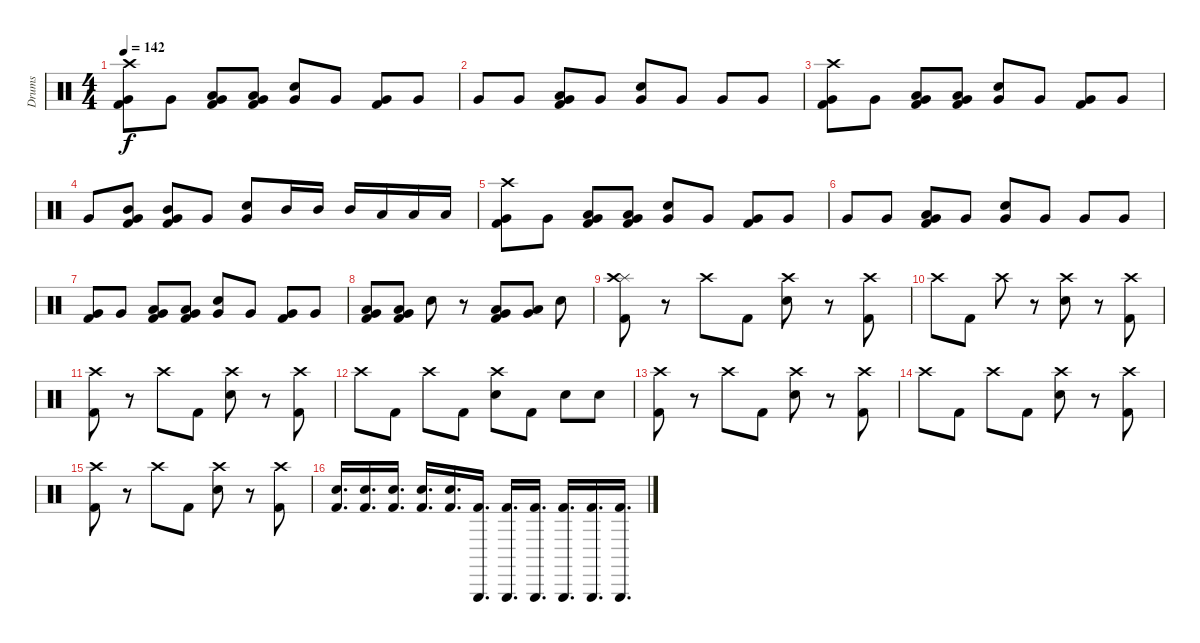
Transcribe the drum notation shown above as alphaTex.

\track ("Drums" "Drums") {instrument percussion}
\staff {score}
\articulation defaults
\ts (4 4)
\tempo 142
\clef neutral
\ks c
("Crash high (hit)" "Very Low Tom (hit)" "Kick (hit) 2").8{dy f} "Very Low Tom (hit)".8 ("Very Low Tom (hit)" "Low Tom (hit)" "Kick (hit) 2").8 ("Very Low Tom (hit)" "Low Tom (hit)" "Kick (hit) 2").8 ("Very Low Tom (hit)" "Snare (hit) 2").8 "Very Low Tom (hit)".8 ("Very Low Tom (hit)" "Kick (hit) 2").8 "Very Low Tom (hit)".8 |
"Very Low Tom (hit)".8 "Very Low Tom (hit)".8 ("Very Low Tom (hit)" "Low Tom (hit)" "Kick (hit) 2").8 "Very Low Tom (hit)".8 ("Very Low Tom (hit)" "Snare (hit) 2").8 "Very Low Tom (hit)".8 "Very Low Tom (hit)".8 "Very Low Tom (hit)".8 |
("Crash high (hit)" "Very Low Tom (hit)" "Kick (hit) 2").8 "Very Low Tom (hit)".8 ("Very Low Tom (hit)" "Low Tom (hit)" "Kick (hit) 2").8 ("Very Low Tom (hit)" "Low Tom (hit)" "Kick (hit) 2").8 ("Very Low Tom (hit)" "Snare (hit) 2").8 "Very Low Tom (hit)".8 ("Very Low Tom (hit)" "Kick (hit) 2").8 "Very Low Tom (hit)".8 |
"Very Low Tom (hit)".8 ("Very Low Tom (hit)" "Mid Tom (hit)" "Kick (hit) 2").8 ("Very Low Tom (hit)" "Mid Tom (hit)" "Kick (hit) 2").8 "Very Low Tom (hit)".8 ("Very Low Tom (hit)" "Snare (hit) 2").8 "Mid Tom (hit)".16 "Mid Tom (hit)".16 "Mid Tom (hit)".16 "Low Tom (hit)".16 "Low Tom (hit)".16 "Low Tom (hit)".16 |
("Crash high (hit)" "Very Low Tom (hit)" "Kick (hit) 2").8 "Very Low Tom (hit)".8 ("Very Low Tom (hit)" "Low Tom (hit)" "Kick (hit) 2").8 ("Very Low Tom (hit)" "Low Tom (hit)" "Kick (hit) 2").8 ("Very Low Tom (hit)" "Snare (hit) 2").8 "Very Low Tom (hit)".8 ("Very Low Tom (hit)" "Kick (hit) 2").8 "Very Low Tom (hit)".8 |
"Very Low Tom (hit)".8 "Very Low Tom (hit)".8 ("Very Low Tom (hit)" "Low Tom (hit)" "Kick (hit) 2").8 "Very Low Tom (hit)".8 ("Very Low Tom (hit)" "Snare (hit) 2").8 "Very Low Tom (hit)".8 "Very Low Tom (hit)".8 "Very Low Tom (hit)".8 |
("Very Low Tom (hit)" "Kick (hit) 2").8 "Very Low Tom (hit)".8 ("Very Low Tom (hit)" "Low Tom (hit)" "Kick (hit) 2").8 ("Very Low Tom (hit)" "Low Tom (hit)" "Kick (hit) 2").8 ("Very Low Tom (hit)" "Snare (hit) 2").8 "Very Low Tom (hit)".8 ("Very Low Tom (hit)" "Kick (hit) 2").8 "Very Low Tom (hit)".8 |
("Very Low Tom (hit)" "Low Tom (hit)" "Kick (hit) 2").8 ("Very Low Tom (hit)" "Low Tom (hit)" "Kick (hit) 2").8 "Snare (hit) 2".8 r.8 ("Very Low Tom (hit)" "Low Tom (hit)" "Kick (hit) 2").8 ("Very Low Tom (hit)" "Low Tom (hit)").8 "Snare (hit) 2".8 |
("Splash (hit)" "Crash high (hit)" "Kick (hit) 2").8 r.8 "Crash high (hit)".8 "Kick (hit) 2".8 ("Crash high (hit)" "Snare (hit) 2").8 r.8 ("Crash high (hit)" "Kick (hit) 2").8 |
"Crash high (hit)".8 "Kick (hit) 2".8 "Crash high (hit)".8 r.8 ("Crash high (hit)" "Snare (hit) 2").8 r.8 ("Crash high (hit)" "Kick (hit) 2").8 |
("Crash high (hit)" "Kick (hit) 2").8 r.8 "Crash high (hit)".8 "Kick (hit) 2".8 ("Crash high (hit)" "Snare (hit) 2").8 r.8 ("Crash high (hit)" "Kick (hit) 2").8 |
"Crash high (hit)".8 "Kick (hit) 2".8 "Crash high (hit)".8 "Kick (hit) 2".8 ("Crash high (hit)" "Snare (hit) 2").8 "Kick (hit) 2".8 "Snare (hit) 2".8 "Snare (hit) 2".8 |
("Crash high (hit)" "Kick (hit) 2").8 r.8 "Crash high (hit)".8 "Kick (hit) 2".8 ("Crash high (hit)" "Snare (hit) 2").8 r.8 ("Crash high (hit)" "Kick (hit) 2").8 |
"Crash high (hit)".8 "Kick (hit) 2".8 "Crash high (hit)".8 "Kick (hit) 2".8 ("Crash high (hit)" "Snare (hit) 2").8 r.8 ("Crash high (hit)" "Kick (hit) 2").8 |
("Crash high (hit)" "Kick (hit) 2").8 r.8 "Crash high (hit)".8 "Kick (hit) 2".8 ("Crash high (hit)" "Snare (hit) 2").8 r.8 ("Crash high (hit)" "Kick (hit) 2").8 |
("Snare (hit) 2" "Kick (hit) 2").16{d} ("Snare (hit) 2" "Kick (hit) 2").16{d} ("Snare (hit) 2" "Kick (hit) 2").16{d} ("Snare (hit) 2" "Kick (hit) 2").16{d} ("Snare (hit) 2" "Kick (hit) 2").16{d} ("Triangle (hit)" "Kick (hit) 2").16{d} ("Triangle (hit)" "Kick (hit) 2").16{d} ("Triangle (hit)" "Kick (hit) 2").16{d} ("Triangle (hit)" "Kick (hit) 2").16{d} ("Triangle (hit)" "Kick (hit) 2").16{d} ("Triangle (hit)" "Kick (hit) 2").16{d}
